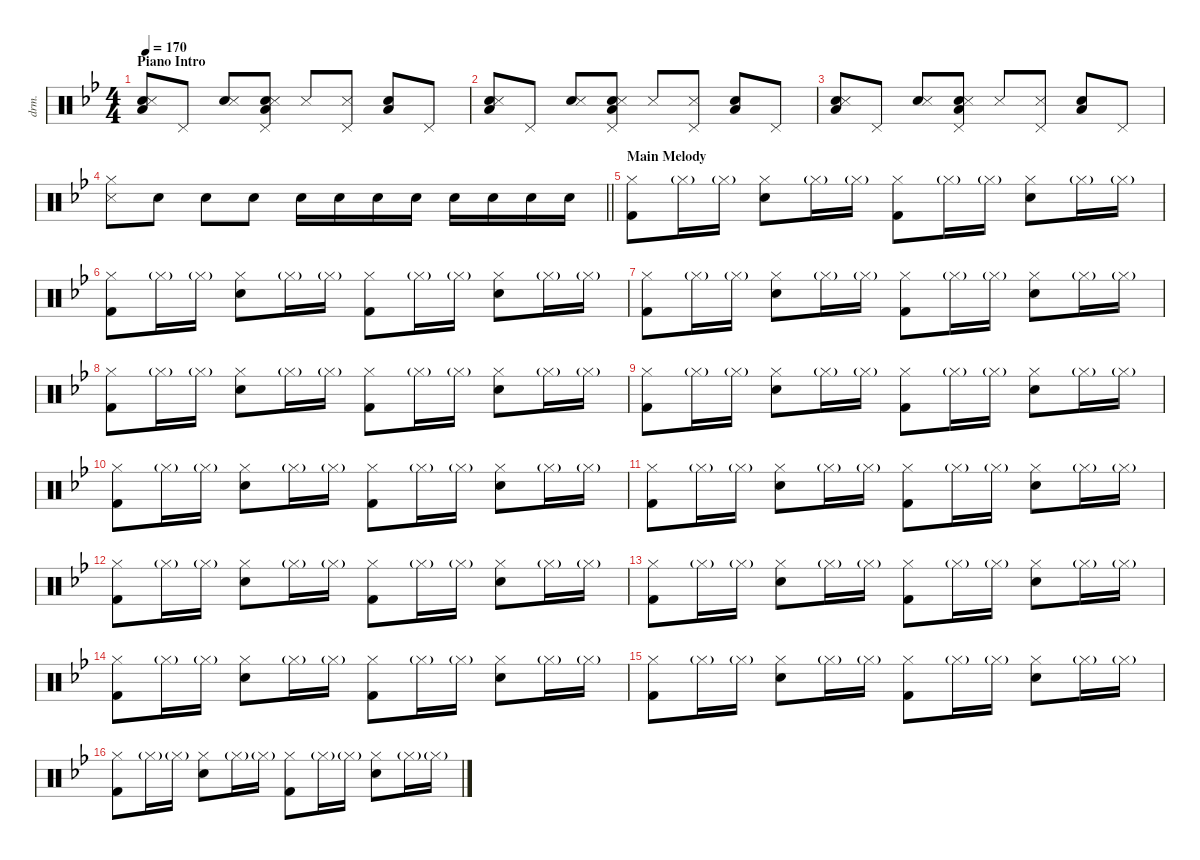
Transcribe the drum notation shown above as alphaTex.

\defaultSystemsLayout 4
\hideDynamics
\bracketExtendMode nobrackets
\otherSystemsTrackNameOrientation horizontal
\track ("Drums" "drm.") {instrument percussion}
\staff {score}
\articulation defaults
\ts (4 4)
\beaming (8 2 2 2 2)
\section ("" "Piano Intro")
\tempo 170
\clef neutral
\ks bb
("Low Floor Tom (hit)"{acc forcenatural} "Hand Clap (hit)"{acc forcenatural} "Snare (side stick) 3"{acc forcenatural}).8{dy f beam Up} "Pedal Hi-Hat (hit)"{acc forcenatural}.8{beam Up} ("Hand Clap (hit)"{acc forcenatural} "Snare (side stick) 3"{acc forcenatural}).8{beam Up} ("Pedal Hi-Hat (hit)"{acc forcenatural} "Low Floor Tom (hit)"{acc forcenatural} "Hand Clap (hit)"{acc forcenatural} "Snare (side stick) 3"{acc forcenatural}).8{beam Up} "Snare (side stick) 3"{acc forcenatural}.8{beam Up} ("Pedal Hi-Hat (hit)"{acc forcenatural} "Snare (side stick) 3"{acc forcenatural}).8{beam Up} ("Low Floor Tom (hit)"{acc forcenatural} "Hand Clap (hit)"{acc forcenatural}).8{beam Up} "Pedal Hi-Hat (hit)"{acc forcenatural}.8{beam Up} |
("Low Floor Tom (hit)"{acc forcenatural} "Hand Clap (hit)"{acc forcenatural} "Snare (side stick) 3"{acc forcenatural}).8{beam Up} "Pedal Hi-Hat (hit)"{acc forcenatural}.8{beam Up} ("Hand Clap (hit)"{acc forcenatural} "Snare (side stick) 3"{acc forcenatural}).8{beam Up} ("Pedal Hi-Hat (hit)"{acc forcenatural} "Low Floor Tom (hit)"{acc forcenatural} "Hand Clap (hit)"{acc forcenatural} "Snare (side stick) 3"{acc forcenatural}).8{beam Up} "Snare (side stick) 3"{acc forcenatural}.8{beam Up} ("Pedal Hi-Hat (hit)"{acc forcenatural} "Snare (side stick) 3"{acc forcenatural}).8{beam Up} ("Low Floor Tom (hit)"{acc forcenatural} "Hand Clap (hit)"{acc forcenatural}).8{beam Up} "Pedal Hi-Hat (hit)"{acc forcenatural}.8{beam Up} |
("Low Floor Tom (hit)"{acc forcenatural} "Hand Clap (hit)"{acc forcenatural} "Snare (side stick) 3"{acc forcenatural}).8{beam Up} "Pedal Hi-Hat (hit)"{acc forcenatural}.8{beam Up} ("Hand Clap (hit)"{acc forcenatural} "Snare (side stick) 3"{acc forcenatural}).8{beam Up} ("Pedal Hi-Hat (hit)"{acc forcenatural} "Low Floor Tom (hit)"{acc forcenatural} "Hand Clap (hit)"{acc forcenatural} "Snare (side stick) 3"{acc forcenatural}).8{beam Up} "Snare (side stick) 3"{acc forcenatural}.8{beam Up} ("Pedal Hi-Hat (hit)"{acc forcenatural} "Snare (side stick) 3"{acc forcenatural}).8{beam Up} ("Low Floor Tom (hit)"{acc forcenatural} "Hand Clap (hit)"{acc forcenatural}).8{beam Up} "Pedal Hi-Hat (hit)"{acc forcenatural}.8{beam Up} |
\barLineRight lightlight
("Hi-Hat (closed)"{acc forcenatural} "Snare (side stick) 3"{acc forcenatural}).8{beam Down} "Snare (hit) 2"{acc forcenatural}.8{beam Down} "Snare (hit) 2"{acc forcenatural}.8{beam Down} "Snare (hit) 2"{acc forcenatural}.8{beam Down} "Snare (hit) 2"{acc forcenatural}.16{beam Down} "Snare (hit) 2"{acc forcenatural}.16{beam Down} "Snare (hit) 2"{acc forcenatural}.16{beam Down} "Snare (hit) 2"{acc forcenatural}.16{beam Down} "Snare (hit) 2"{acc forcenatural}.16{beam Down} "Snare (hit) 2"{acc forcenatural}.16{beam Down} "Snare (hit) 2"{acc forcenatural}.16{beam Down} "Snare (hit) 2"{acc forcenatural}.16{beam Down} |
\section ("" "Main Melody")
("Hi-Hat (closed)"{acc forcenatural} "Kick (hit) 2"{acc forcenatural}).8{beam Down} "Hi-Hat (closed)"{g acc forcenatural}.16{dy mf beam Down} "Hi-Hat (closed)"{g acc forcenatural}.16{beam Down} ("Hi-Hat (closed)"{acc forcenatural} "Snare (hit) 2"{acc forcenatural}).8{dy mp beam Down} "Hi-Hat (closed)"{g acc forcenatural}.16{dy mf beam Down} "Hi-Hat (closed)"{g acc forcenatural}.16{beam Down} ("Hi-Hat (closed)"{acc forcenatural} "Kick (hit) 2"{acc forcenatural}).8{dy f beam Down} "Hi-Hat (closed)"{g acc forcenatural}.16{dy mf beam Down} "Hi-Hat (closed)"{g acc forcenatural}.16{beam Down} ("Hi-Hat (closed)"{acc forcenatural} "Snare (hit) 2"{acc forcenatural}).8{dy mp beam Down} "Hi-Hat (closed)"{g acc forcenatural}.16{dy mf beam Down} "Hi-Hat (closed)"{g acc forcenatural}.16{beam Down} |
("Hi-Hat (closed)"{acc forcenatural} "Kick (hit) 2"{acc forcenatural}).8{dy f beam Down} "Hi-Hat (closed)"{g acc forcenatural}.16{dy mf beam Down} "Hi-Hat (closed)"{g acc forcenatural}.16{beam Down} ("Hi-Hat (closed)"{acc forcenatural} "Snare (hit) 2"{acc forcenatural}).8{dy mp beam Down} "Hi-Hat (closed)"{g acc forcenatural}.16{dy mf beam Down} "Hi-Hat (closed)"{g acc forcenatural}.16{beam Down} ("Hi-Hat (closed)"{acc forcenatural} "Kick (hit) 2"{acc forcenatural}).8{dy f beam Down} "Hi-Hat (closed)"{g acc forcenatural}.16{dy mf beam Down} "Hi-Hat (closed)"{g acc forcenatural}.16{beam Down} ("Hi-Hat (closed)"{acc forcenatural} "Snare (hit) 2"{acc forcenatural}).8{dy mp beam Down} "Hi-Hat (closed)"{g acc forcenatural}.16{dy mf beam Down} "Hi-Hat (closed)"{g acc forcenatural}.16{beam Down} |
("Hi-Hat (closed)"{acc forcenatural} "Kick (hit) 2"{acc forcenatural}).8{dy f beam Down} "Hi-Hat (closed)"{g acc forcenatural}.16{dy mf beam Down} "Hi-Hat (closed)"{g acc forcenatural}.16{beam Down} ("Hi-Hat (closed)"{acc forcenatural} "Snare (hit) 2"{acc forcenatural}).8{dy mp beam Down} "Hi-Hat (closed)"{g acc forcenatural}.16{dy mf beam Down} "Hi-Hat (closed)"{g acc forcenatural}.16{beam Down} ("Hi-Hat (closed)"{acc forcenatural} "Kick (hit) 2"{acc forcenatural}).8{dy f beam Down} "Hi-Hat (closed)"{g acc forcenatural}.16{dy mf beam Down} "Hi-Hat (closed)"{g acc forcenatural}.16{beam Down} ("Hi-Hat (closed)"{acc forcenatural} "Snare (hit) 2"{acc forcenatural}).8{dy mp beam Down} "Hi-Hat (closed)"{g acc forcenatural}.16{dy mf beam Down} "Hi-Hat (closed)"{g acc forcenatural}.16{beam Down} |
("Hi-Hat (closed)"{acc forcenatural} "Kick (hit) 2"{acc forcenatural}).8{dy f beam Down} "Hi-Hat (closed)"{g acc forcenatural}.16{dy mf beam Down} "Hi-Hat (closed)"{g acc forcenatural}.16{beam Down} ("Hi-Hat (closed)"{acc forcenatural} "Snare (hit) 2"{acc forcenatural}).8{dy mp beam Down} "Hi-Hat (closed)"{g acc forcenatural}.16{dy mf beam Down} "Hi-Hat (closed)"{g acc forcenatural}.16{beam Down} ("Hi-Hat (closed)"{acc forcenatural} "Kick (hit) 2"{acc forcenatural}).8{dy f beam Down} "Hi-Hat (closed)"{g acc forcenatural}.16{dy mf beam Down} "Hi-Hat (closed)"{g acc forcenatural}.16{beam Down} ("Hi-Hat (closed)"{acc forcenatural} "Snare (hit) 2"{acc forcenatural}).8{dy mp beam Down} "Hi-Hat (closed)"{g acc forcenatural}.16{dy mf beam Down} "Hi-Hat (closed)"{g acc forcenatural}.16{beam Down} |
("Hi-Hat (closed)"{acc forcenatural} "Kick (hit) 2"{acc forcenatural}).8{dy f beam Down} "Hi-Hat (closed)"{g acc forcenatural}.16{dy mf beam Down} "Hi-Hat (closed)"{g acc forcenatural}.16{beam Down} ("Hi-Hat (closed)"{acc forcenatural} "Snare (hit) 2"{acc forcenatural}).8{dy mp beam Down} "Hi-Hat (closed)"{g acc forcenatural}.16{dy mf beam Down} "Hi-Hat (closed)"{g acc forcenatural}.16{beam Down} ("Hi-Hat (closed)"{acc forcenatural} "Kick (hit) 2"{acc forcenatural}).8{dy f beam Down} "Hi-Hat (closed)"{g acc forcenatural}.16{dy mf beam Down} "Hi-Hat (closed)"{g acc forcenatural}.16{beam Down} ("Hi-Hat (closed)"{acc forcenatural} "Snare (hit) 2"{acc forcenatural}).8{dy mp beam Down} "Hi-Hat (closed)"{g acc forcenatural}.16{dy mf beam Down} "Hi-Hat (closed)"{g acc forcenatural}.16{beam Down} |
("Hi-Hat (closed)"{acc forcenatural} "Kick (hit) 2"{acc forcenatural}).8{dy f beam Down} "Hi-Hat (closed)"{g acc forcenatural}.16{dy mf beam Down} "Hi-Hat (closed)"{g acc forcenatural}.16{beam Down} ("Hi-Hat (closed)"{acc forcenatural} "Snare (hit) 2"{acc forcenatural}).8{dy mp beam Down} "Hi-Hat (closed)"{g acc forcenatural}.16{dy mf beam Down} "Hi-Hat (closed)"{g acc forcenatural}.16{beam Down} ("Hi-Hat (closed)"{acc forcenatural} "Kick (hit) 2"{acc forcenatural}).8{dy f beam Down} "Hi-Hat (closed)"{g acc forcenatural}.16{dy mf beam Down} "Hi-Hat (closed)"{g acc forcenatural}.16{beam Down} ("Hi-Hat (closed)"{acc forcenatural} "Snare (hit) 2"{acc forcenatural}).8{dy mp beam Down} "Hi-Hat (closed)"{g acc forcenatural}.16{dy mf beam Down} "Hi-Hat (closed)"{g acc forcenatural}.16{beam Down} |
("Hi-Hat (closed)"{acc forcenatural} "Kick (hit) 2"{acc forcenatural}).8{dy f beam Down} "Hi-Hat (closed)"{g acc forcenatural}.16{dy mf beam Down} "Hi-Hat (closed)"{g acc forcenatural}.16{beam Down} ("Hi-Hat (closed)"{acc forcenatural} "Snare (hit) 2"{acc forcenatural}).8{dy mp beam Down} "Hi-Hat (closed)"{g acc forcenatural}.16{dy mf beam Down} "Hi-Hat (closed)"{g acc forcenatural}.16{beam Down} ("Hi-Hat (closed)"{acc forcenatural} "Kick (hit) 2"{acc forcenatural}).8{dy f beam Down} "Hi-Hat (closed)"{g acc forcenatural}.16{dy mf beam Down} "Hi-Hat (closed)"{g acc forcenatural}.16{beam Down} ("Hi-Hat (closed)"{acc forcenatural} "Snare (hit) 2"{acc forcenatural}).8{dy mp beam Down} "Hi-Hat (closed)"{g acc forcenatural}.16{dy mf beam Down} "Hi-Hat (closed)"{g acc forcenatural}.16{beam Down} |
("Hi-Hat (closed)"{acc forcenatural} "Kick (hit) 2"{acc forcenatural}).8{dy f beam Down} "Hi-Hat (closed)"{g acc forcenatural}.16{dy mf beam Down} "Hi-Hat (closed)"{g acc forcenatural}.16{beam Down} ("Hi-Hat (closed)"{acc forcenatural} "Snare (hit) 2"{acc forcenatural}).8{dy mp beam Down} "Hi-Hat (closed)"{g acc forcenatural}.16{dy mf beam Down} "Hi-Hat (closed)"{g acc forcenatural}.16{beam Down} ("Hi-Hat (closed)"{acc forcenatural} "Kick (hit) 2"{acc forcenatural}).8{dy f beam Down} "Hi-Hat (closed)"{g acc forcenatural}.16{dy mf beam Down} "Hi-Hat (closed)"{g acc forcenatural}.16{beam Down} ("Hi-Hat (closed)"{acc forcenatural} "Snare (hit) 2"{acc forcenatural}).8{dy mp beam Down} "Hi-Hat (closed)"{g acc forcenatural}.16{dy mf beam Down} "Hi-Hat (closed)"{g acc forcenatural}.16{beam Down} |
("Hi-Hat (closed)"{acc forcenatural} "Kick (hit) 2"{acc forcenatural}).8{dy f beam Down} "Hi-Hat (closed)"{g acc forcenatural}.16{dy mf beam Down} "Hi-Hat (closed)"{g acc forcenatural}.16{beam Down} ("Hi-Hat (closed)"{acc forcenatural} "Snare (hit) 2"{acc forcenatural}).8{dy mp beam Down} "Hi-Hat (closed)"{g acc forcenatural}.16{dy mf beam Down} "Hi-Hat (closed)"{g acc forcenatural}.16{beam Down} ("Hi-Hat (closed)"{acc forcenatural} "Kick (hit) 2"{acc forcenatural}).8{dy f beam Down} "Hi-Hat (closed)"{g acc forcenatural}.16{dy mf beam Down} "Hi-Hat (closed)"{g acc forcenatural}.16{beam Down} ("Hi-Hat (closed)"{acc forcenatural} "Snare (hit) 2"{acc forcenatural}).8{dy mp beam Down} "Hi-Hat (closed)"{g acc forcenatural}.16{dy mf beam Down} "Hi-Hat (closed)"{g acc forcenatural}.16{beam Down} |
("Hi-Hat (closed)"{acc forcenatural} "Kick (hit) 2"{acc forcenatural}).8{dy f beam Down} "Hi-Hat (closed)"{g acc forcenatural}.16{dy mf beam Down} "Hi-Hat (closed)"{g acc forcenatural}.16{beam Down} ("Hi-Hat (closed)"{acc forcenatural} "Snare (hit) 2"{acc forcenatural}).8{dy mp beam Down} "Hi-Hat (closed)"{g acc forcenatural}.16{dy mf beam Down} "Hi-Hat (closed)"{g acc forcenatural}.16{beam Down} ("Hi-Hat (closed)"{acc forcenatural} "Kick (hit) 2"{acc forcenatural}).8{dy f beam Down} "Hi-Hat (closed)"{g acc forcenatural}.16{dy mf beam Down} "Hi-Hat (closed)"{g acc forcenatural}.16{beam Down} ("Hi-Hat (closed)"{acc forcenatural} "Snare (hit) 2"{acc forcenatural}).8{dy mp beam Down} "Hi-Hat (closed)"{g acc forcenatural}.16{dy mf beam Down} "Hi-Hat (closed)"{g acc forcenatural}.16{beam Down} |
("Hi-Hat (closed)"{acc forcenatural} "Kick (hit) 2"{acc forcenatural}).8{dy f beam Down} "Hi-Hat (closed)"{g acc forcenatural}.16{dy mf beam Down} "Hi-Hat (closed)"{g acc forcenatural}.16{beam Down} ("Hi-Hat (closed)"{acc forcenatural} "Snare (hit) 2"{acc forcenatural}).8{dy mp beam Down} "Hi-Hat (closed)"{g acc forcenatural}.16{dy mf beam Down} "Hi-Hat (closed)"{g acc forcenatural}.16{beam Down} ("Hi-Hat (closed)"{acc forcenatural} "Kick (hit) 2"{acc forcenatural}).8{dy f beam Down} "Hi-Hat (closed)"{g acc forcenatural}.16{dy mf beam Down} "Hi-Hat (closed)"{g acc forcenatural}.16{beam Down} ("Hi-Hat (closed)"{acc forcenatural} "Snare (hit) 2"{acc forcenatural}).8{dy mp beam Down} "Hi-Hat (closed)"{g acc forcenatural}.16{dy mf beam Down} "Hi-Hat (closed)"{g acc forcenatural}.16{beam Down} |
("Hi-Hat (closed)"{acc forcenatural} "Kick (hit) 2"{acc forcenatural}).8{dy f beam Down} "Hi-Hat (closed)"{g acc forcenatural}.16{dy mf beam Down} "Hi-Hat (closed)"{g acc forcenatural}.16{beam Down} ("Hi-Hat (closed)"{acc forcenatural} "Snare (hit) 2"{acc forcenatural}).8{dy mp beam Down} "Hi-Hat (closed)"{g acc forcenatural}.16{dy mf beam Down} "Hi-Hat (closed)"{g acc forcenatural}.16{beam Down} ("Hi-Hat (closed)"{acc forcenatural} "Kick (hit) 2"{acc forcenatural}).8{dy f beam Down} "Hi-Hat (closed)"{g acc forcenatural}.16{dy mf beam Down} "Hi-Hat (closed)"{g acc forcenatural}.16{beam Down} ("Hi-Hat (closed)"{acc forcenatural} "Snare (hit) 2"{acc forcenatural}).8{dy mp beam Down} "Hi-Hat (closed)"{g acc forcenatural}.16{dy mf beam Down} "Hi-Hat (closed)"{g acc forcenatural}.16{beam Down}
